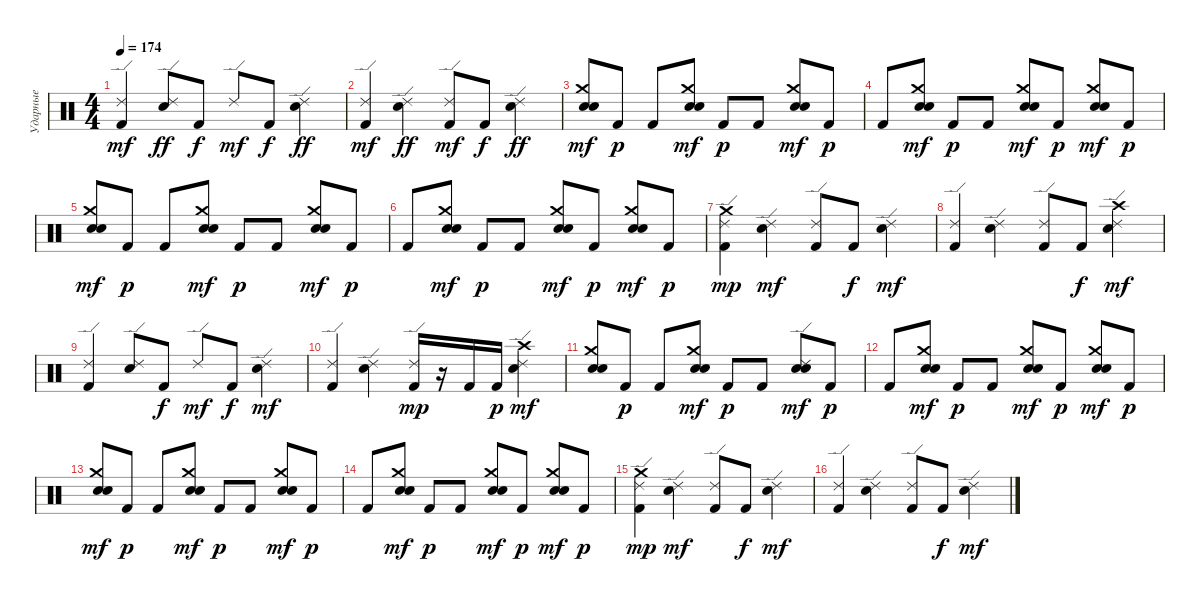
\track ("Ударные" "Ударные") {instrument percussion}
\staff {score}
\articulation defaults
\ts (4 4)
\tempo 174
\clef neutral
\ks c
("Ride (edge) 2" "Kick (hit) 2").4{dy mf} ("Ride (edge) 2" "Electric Snare (hit)").8{dy ff} "Kick (hit) 2".8{dy f} "Ride (edge) 2".8{dy mf} "Kick (hit) 2".8{dy f} ("Ride (edge) 2" "Electric Snare (hit)").4{dy ff} |
("Ride (edge) 2" "Kick (hit) 2").4{dy mf} ("Ride (edge) 2" "Electric Snare (hit)").4{dy ff} ("Ride (edge) 2" "Kick (hit) 2").8{dy mf} "Kick (hit) 2".8{dy f} ("Ride (edge) 2" "Electric Snare (hit)").4{dy ff} |
("Crash medium (hit)" "Electric Snare (hit)" "Snare (hit) 2").8{dy mf} "Kick (hit) 2".8{dy p} "Kick (hit) 2".8 ("Crash medium (hit)" "Electric Snare (hit)" "Snare (hit) 2").8{dy mf} "Kick (hit) 2".8{dy p} "Kick (hit) 2".8 ("Crash medium (hit)" "Electric Snare (hit)" "Snare (hit) 2").8{dy mf} "Kick (hit) 2".8{dy p} |
"Kick (hit) 2".8 ("Crash medium (hit)" "Electric Snare (hit)" "Snare (hit) 2").8{dy mf} "Kick (hit) 2".8{dy p} "Kick (hit) 2".8 ("Crash medium (hit)" "Electric Snare (hit)" "Snare (hit) 2").8{dy mf} "Kick (hit) 2".8{dy p} ("Crash medium (hit)" "Electric Snare (hit)" "Snare (hit) 2").8{dy mf} "Kick (hit) 2".8{dy p} |
("Crash medium (hit)" "Electric Snare (hit)" "Snare (hit) 2").8{dy mf} "Kick (hit) 2".8{dy p} "Kick (hit) 2".8 ("Crash medium (hit)" "Electric Snare (hit)" "Snare (hit) 2").8{dy mf} "Kick (hit) 2".8{dy p} "Kick (hit) 2".8 ("Crash medium (hit)" "Electric Snare (hit)" "Snare (hit) 2").8{dy mf} "Kick (hit) 2".8{dy p} |
"Kick (hit) 2".8 ("Crash medium (hit)" "Electric Snare (hit)" "Snare (hit) 2").8{dy mf} "Kick (hit) 2".8{dy p} "Kick (hit) 2".8 ("Crash medium (hit)" "Electric Snare (hit)" "Snare (hit) 2").8{dy mf} "Kick (hit) 2".8{dy p} ("Crash medium (hit)" "Electric Snare (hit)" "Snare (hit) 2").8{dy mf} "Kick (hit) 2".8{dy p} |
("Ride (edge) 2" "Crash medium (hit)" "Kick (hit) 2").4{dy mp} ("Ride (edge) 2" "Electric Snare (hit)").4{dy mf} ("Ride (edge) 2" "Kick (hit) 2").8 "Kick (hit) 2".8{dy f} ("Ride (edge) 2" "Electric Snare (hit)").4{dy mf} |
("Ride (edge) 2" "Kick (hit) 2").4 ("Ride (edge) 2" "Electric Snare (hit)").4 ("Ride (edge) 2" "Kick (hit) 2").8 "Kick (hit) 2".8{dy f} ("Crash high (hit)" "Ride (edge) 2" "Electric Snare (hit)").4{dy mf} |
("Ride (edge) 2" "Kick (hit) 2").4 ("Ride (edge) 2" "Electric Snare (hit)").8 "Kick (hit) 2".8{dy f} "Ride (edge) 2".8{dy mf} "Kick (hit) 2".8{dy f} ("Ride (edge) 2" "Electric Snare (hit)").4{dy mf} |
("Ride (edge) 2" "Kick (hit) 2").4 ("Ride (edge) 2" "Electric Snare (hit)").4 ("Ride (edge) 2" "Kick (hit) 2").16{dy mp} r.16 "Kick (hit) 2".16 "Kick (hit) 2".16{dy p} ("Crash high (hit)" "Ride (edge) 2" "Electric Snare (hit)").4{dy mf} |
("Crash medium (hit)" "Electric Snare (hit)" "Snare (hit) 2").8 "Kick (hit) 2".8{dy p} "Kick (hit) 2".8 ("Crash medium (hit)" "Electric Snare (hit)" "Snare (hit) 2").8{dy mf} "Kick (hit) 2".8{dy p} "Kick (hit) 2".8 ("Ride (edge) 2" "Electric Snare (hit)" "Snare (hit) 2").8{dy mf} "Kick (hit) 2".8{dy p} |
"Kick (hit) 2".8 ("Crash medium (hit)" "Electric Snare (hit)" "Snare (hit) 2").8{dy mf} "Kick (hit) 2".8{dy p} "Kick (hit) 2".8 ("Crash medium (hit)" "Electric Snare (hit)" "Snare (hit) 2").8{dy mf} "Kick (hit) 2".8{dy p} ("Crash medium (hit)" "Electric Snare (hit)" "Snare (hit) 2").8{dy mf} "Kick (hit) 2".8{dy p} |
("Crash medium (hit)" "Electric Snare (hit)" "Snare (hit) 2").8{dy mf} "Kick (hit) 2".8{dy p} "Kick (hit) 2".8 ("Crash medium (hit)" "Electric Snare (hit)" "Snare (hit) 2").8{dy mf} "Kick (hit) 2".8{dy p} "Kick (hit) 2".8 ("Crash medium (hit)" "Electric Snare (hit)" "Snare (hit) 2").8{dy mf} "Kick (hit) 2".8{dy p} |
"Kick (hit) 2".8 ("Crash medium (hit)" "Electric Snare (hit)" "Snare (hit) 2").8{dy mf} "Kick (hit) 2".8{dy p} "Kick (hit) 2".8 ("Crash medium (hit)" "Electric Snare (hit)" "Snare (hit) 2").8{dy mf} "Kick (hit) 2".8{dy p} ("Crash medium (hit)" "Electric Snare (hit)" "Snare (hit) 2").8{dy mf} "Kick (hit) 2".8{dy p} |
("Ride (edge) 2" "Crash medium (hit)" "Kick (hit) 2").4{dy mp} ("Ride (edge) 2" "Electric Snare (hit)").4{dy mf} ("Ride (edge) 2" "Kick (hit) 2").8 "Kick (hit) 2".8{dy f} ("Ride (edge) 2" "Electric Snare (hit)").4{dy mf} |
("Ride (edge) 2" "Kick (hit) 2").4 ("Ride (edge) 2" "Electric Snare (hit)").4 ("Ride (edge) 2" "Kick (hit) 2").8 "Kick (hit) 2".8{dy f} ("Ride (edge) 2" "Electric Snare (hit)").4{dy mf}
